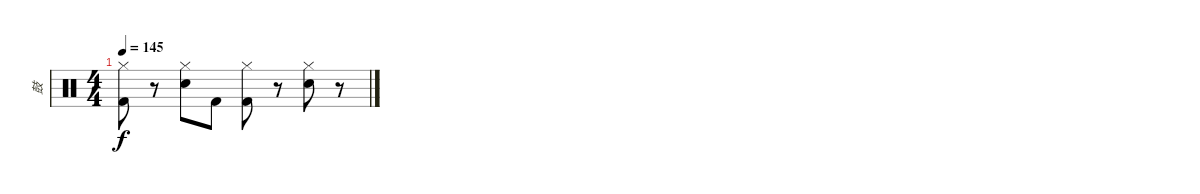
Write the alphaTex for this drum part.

\track ("鼓" "鼓") {instrument percussion}
\staff {score}
\articulation defaults
\ts (4 4)
\tempo 145
\clef neutral
\ks c
("Kick (hit) 2" "Hi-Hat (closed)").8{dy f} r.8 ("Snare (hit) 2" "Hi-Hat (closed)").8 "Kick (hit) 2".8 ("Kick (hit) 2" "Hi-Hat (closed)").8 r.8 ("Snare (hit) 2" "Hi-Hat (closed)").8 r.8
